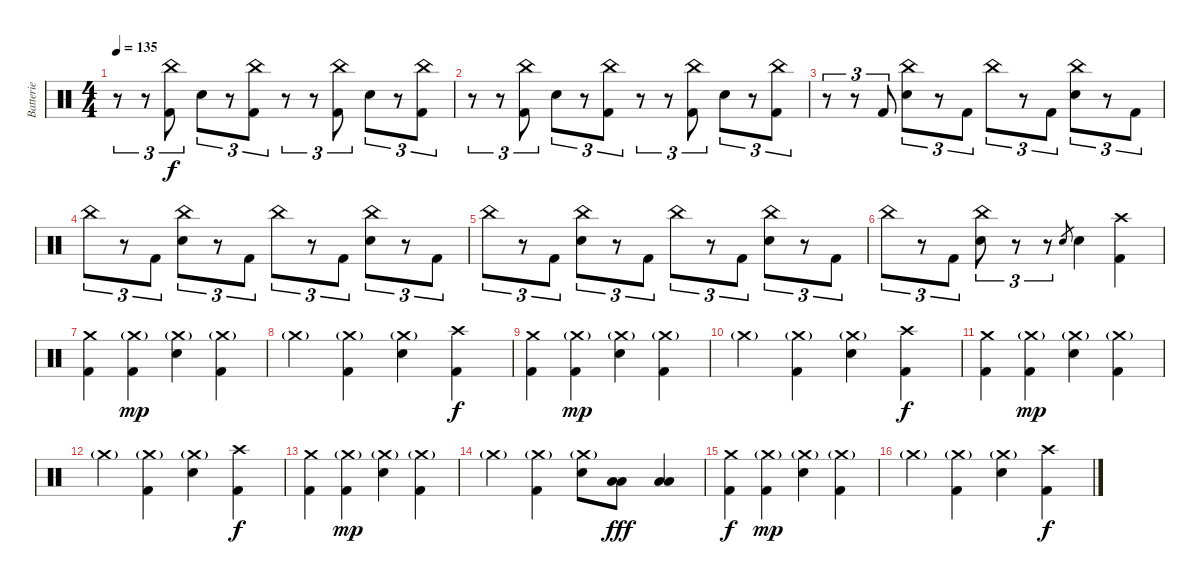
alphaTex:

\track ("Batterie" "Batterie") {instrument percussion}
\staff {score}
\articulation defaults
\ts (4 4)
\tempo 135
\clef neutral
\ks c
r.8{tu (3 2) dy f} r.8{tu (3 2)} ("China (hit)" "Kick (hit) 2").8{tu (3 2)} "Electric Snare (hit)".8{tu (3 2)} r.8{tu (3 2)} ("China (hit)" "Kick (hit) 2").8{tu (3 2)} r.8{tu (3 2)} r.8{tu (3 2)} ("China (hit)" "Kick (hit) 2").8{tu (3 2)} "Electric Snare (hit)".8{tu (3 2)} r.8{tu (3 2)} ("China (hit)" "Kick (hit) 2").8{tu (3 2)} |
r.8{tu (3 2)} r.8{tu (3 2)} ("China (hit)" "Kick (hit) 2").8{tu (3 2)} "Electric Snare (hit)".8{tu (3 2)} r.8{tu (3 2)} ("China (hit)" "Kick (hit) 2").8{tu (3 2)} r.8{tu (3 2)} r.8{tu (3 2)} ("China (hit)" "Kick (hit) 2").8{tu (3 2)} "Electric Snare (hit)".8{tu (3 2)} r.8{tu (3 2)} ("China (hit)" "Kick (hit) 2").8{tu (3 2)} |
r.8{tu (3 2)} r.8{tu (3 2)} "Kick (hit) 2".8{tu (3 2)} ("China (hit)" "Electric Snare (hit)").8{tu (3 2)} r.8{tu (3 2)} "Kick (hit) 2".8{tu (3 2)} "China (hit)".8{tu (3 2)} r.8{tu (3 2)} "Kick (hit) 2".8{tu (3 2)} ("China (hit)" "Electric Snare (hit)").8{tu (3 2)} r.8{tu (3 2)} "Kick (hit) 2".8{tu (3 2)} |
"China (hit)".8{tu (3 2)} r.8{tu (3 2)} "Kick (hit) 2".8{tu (3 2)} ("China (hit)" "Electric Snare (hit)").8{tu (3 2)} r.8{tu (3 2)} "Kick (hit) 2".8{tu (3 2)} "China (hit)".8{tu (3 2)} r.8{tu (3 2)} "Kick (hit) 2".8{tu (3 2)} ("China (hit)" "Electric Snare (hit)").8{tu (3 2)} r.8{tu (3 2)} "Kick (hit) 2".8{tu (3 2)} |
"China (hit)".8{tu (3 2)} r.8{tu (3 2)} "Kick (hit) 2".8{tu (3 2)} ("China (hit)" "Electric Snare (hit)").8{tu (3 2)} r.8{tu (3 2)} "Kick (hit) 2".8{tu (3 2)} "China (hit)".8{tu (3 2)} r.8{tu (3 2)} "Kick (hit) 2".8{tu (3 2)} ("China (hit)" "Electric Snare (hit)").8{tu (3 2)} r.8{tu (3 2)} "Kick (hit) 2".8{tu (3 2)} |
"China (hit)".8{tu (3 2)} r.8{tu (3 2)} "Kick (hit) 2".8{tu (3 2)} ("China (hit)" "Electric Snare (hit)").8{tu (3 2)} r.8{tu (3 2)} r.8{tu (3 2)} "Electric Snare (hit)".8{gr} "Electric Snare (hit)".4 ("Crash high (hit)" "Kick (hit) 2").4 |
("Crash medium (hit)" "Kick (hit) 2").4 ("Crash medium (hit)"{g} "Kick (hit) 2").4{dy mp} ("Crash medium (hit)"{g} "Electric Snare (hit)").4 ("Crash medium (hit)"{g} "Kick (hit) 2").4 |
"Crash medium (hit)"{g}.4 ("Crash medium (hit)"{g} "Kick (hit) 2").4 ("Crash medium (hit)"{g} "Electric Snare (hit)").4 ("Crash high (hit)" "Kick (hit) 2").4{dy f} |
("Crash medium (hit)" "Kick (hit) 2").4 ("Crash medium (hit)"{g} "Kick (hit) 2").4{dy mp} ("Crash medium (hit)"{g} "Electric Snare (hit)").4 ("Crash medium (hit)"{g} "Kick (hit) 2").4 |
"Crash medium (hit)"{g}.4 ("Crash medium (hit)"{g} "Kick (hit) 2").4 ("Crash medium (hit)"{g} "Electric Snare (hit)").4 ("Crash high (hit)" "Kick (hit) 2").4{dy f} |
("Crash medium (hit)" "Kick (hit) 2").4 ("Crash medium (hit)"{g} "Kick (hit) 2").4{dy mp} ("Crash medium (hit)"{g} "Electric Snare (hit)").4 ("Crash medium (hit)"{g} "Kick (hit) 2").4 |
"Crash medium (hit)"{g}.4 ("Crash medium (hit)"{g} "Kick (hit) 2").4 ("Crash medium (hit)"{g} "Electric Snare (hit)").4 ("Crash high (hit)" "Kick (hit) 2").4{dy f} |
("Crash medium (hit)" "Kick (hit) 2").4 ("Crash medium (hit)"{g} "Kick (hit) 2").4{dy mp} ("Crash medium (hit)"{g} "Electric Snare (hit)").4 ("Crash medium (hit)"{g} "Kick (hit) 2").4 |
"Crash medium (hit)"{g}.4 ("Crash medium (hit)"{g} "Kick (hit) 2").4 ("Crash medium (hit)"{g} "Electric Snare (hit)").8 ("Low Tom (hit)" "Low Tom (hit)").8{dy fff} ("Low Tom (hit)" "Low Tom (hit)").4 |
("Crash medium (hit)" "Kick (hit) 2").4{dy f} ("Crash medium (hit)"{g} "Kick (hit) 2").4{dy mp} ("Crash medium (hit)"{g} "Electric Snare (hit)").4 ("Crash medium (hit)"{g} "Kick (hit) 2").4 |
"Crash medium (hit)"{g}.4 ("Crash medium (hit)"{g} "Kick (hit) 2").4 ("Crash medium (hit)"{g} "Electric Snare (hit)").4 ("Crash high (hit)" "Kick (hit) 2").4{dy f}
